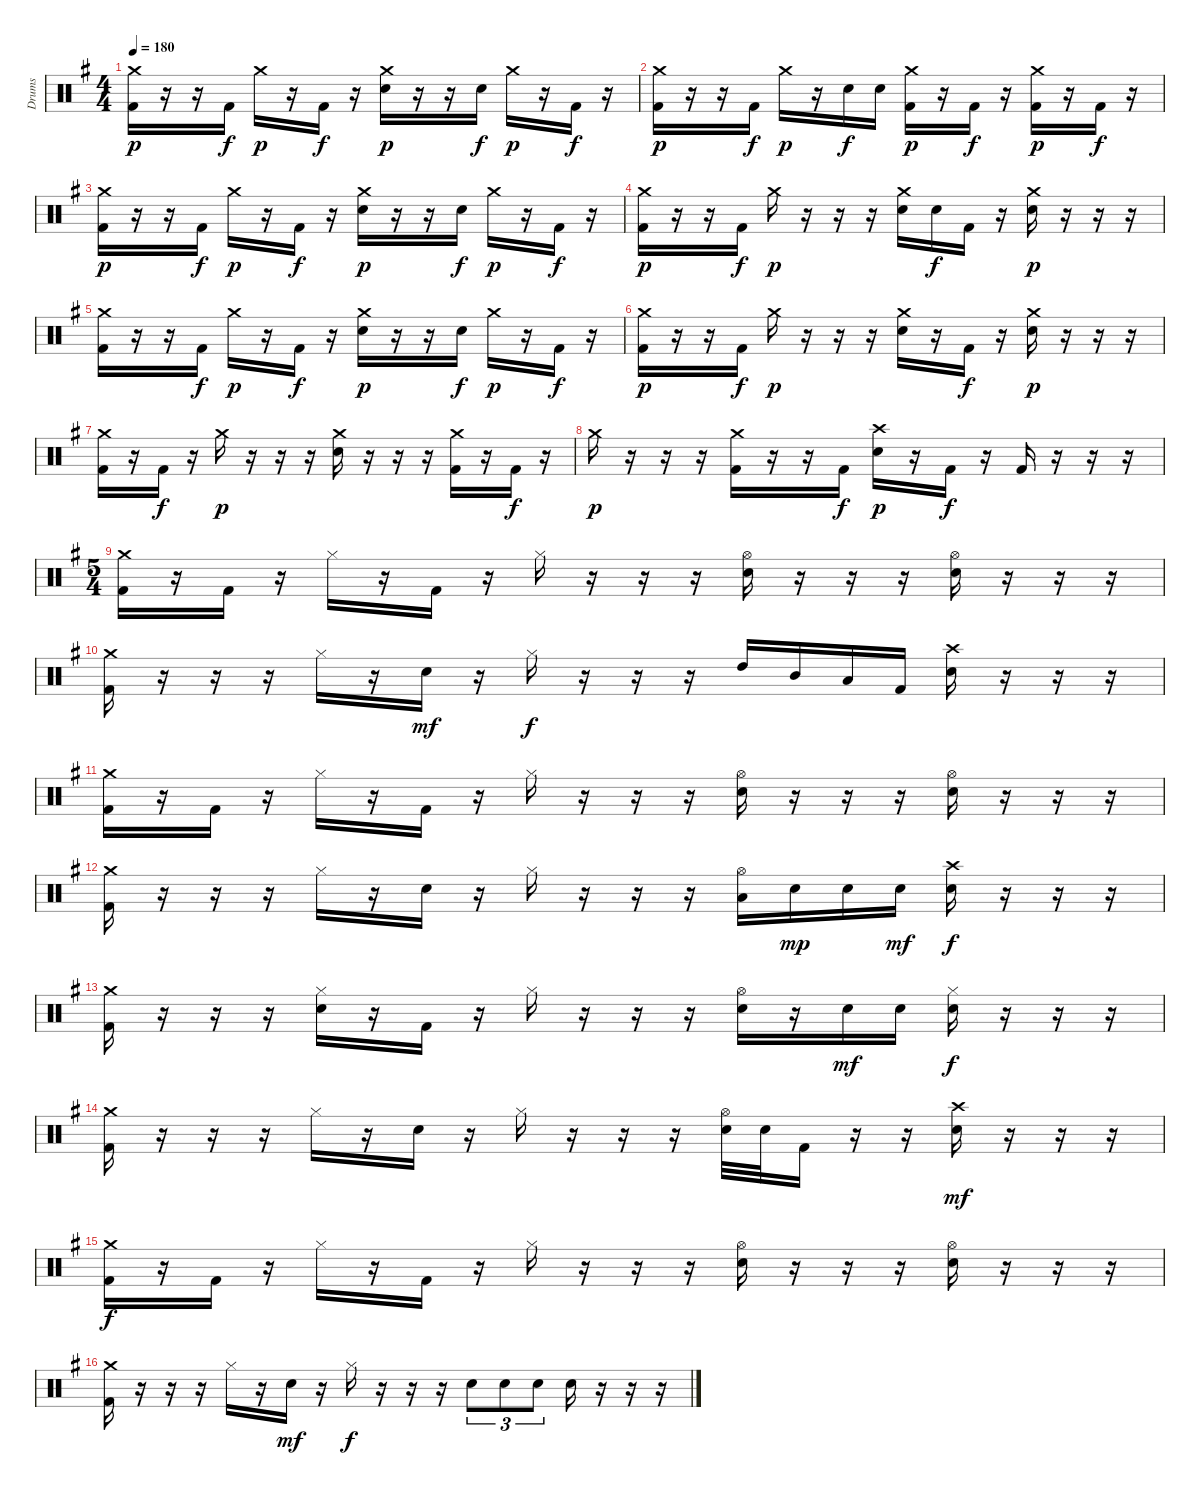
\track ("Drums" "Drums") {instrument percussion}
\staff {score}
\articulation defaults
\ts (4 4)
\tempo 180
\clef neutral
\ks g
("Crash medium (hit)" "Kick (hit) 2").16{dy p} r.16 r.16 "Kick (hit) 2".16{dy f} "Crash medium (hit)".16{dy p} r.16 "Kick (hit) 2".16{dy f} r.16 ("Crash medium (hit)" "Snare (hit) 2").16{dy p} r.16 r.16 "Snare (hit) 2".16{dy f} "Crash medium (hit)".16{dy p} r.16 "Kick (hit) 2".16{dy f} r.16 |
("Crash medium (hit)" "Kick (hit) 2").16{dy p} r.16 r.16 "Kick (hit) 2".16{dy f} "Crash medium (hit)".16{dy p} r.16 "Snare (hit) 2".16{dy f} "Snare (hit) 2".16 ("Crash medium (hit)" "Kick (hit) 2").16{dy p} r.16 "Kick (hit) 2".16{dy f} r.16 ("Crash medium (hit)" "Kick (hit) 2").16{dy p} r.16 "Kick (hit) 2".16{dy f} r.16 |
("Crash medium (hit)" "Kick (hit) 2").16{dy p} r.16 r.16 "Kick (hit) 2".16{dy f} "Crash medium (hit)".16{dy p} r.16 "Kick (hit) 2".16{dy f} r.16 ("Crash medium (hit)" "Snare (hit) 2").16{dy p} r.16 r.16 "Snare (hit) 2".16{dy f} "Crash medium (hit)".16{dy p} r.16 "Kick (hit) 2".16{dy f} r.16 |
("Crash medium (hit)" "Kick (hit) 2").16{dy p} r.16 r.16 "Kick (hit) 2".16{dy f} "Crash medium (hit)".16{dy p} r.16 r.16 r.16 ("Crash medium (hit)" "Snare (hit) 2").16 "Snare (hit) 2".16{dy f} "Kick (hit) 2".16 r.16 ("Crash medium (hit)" "Snare (hit) 2").16{dy p} r.16 r.16 r.16 |
("Crash medium (hit)" "Kick (hit) 2").16 r.16 r.16 "Kick (hit) 2".16{dy f} "Crash medium (hit)".16{dy p} r.16 "Kick (hit) 2".16{dy f} r.16 ("Crash medium (hit)" "Snare (hit) 2").16{dy p} r.16 r.16 "Snare (hit) 2".16{dy f} "Crash medium (hit)".16{dy p} r.16 "Kick (hit) 2".16{dy f} r.16 |
("Crash medium (hit)" "Kick (hit) 2").16{dy p} r.16 r.16 "Kick (hit) 2".16{dy f} "Crash medium (hit)".16{dy p} r.16 r.16 r.16 ("Crash medium (hit)" "Snare (hit) 2").16 r.16 "Kick (hit) 2".16{dy f} r.16 ("Crash medium (hit)" "Snare (hit) 2").16{dy p} r.16 r.16 r.16 |
("Crash medium (hit)" "Kick (hit) 2").16 r.16 "Kick (hit) 2".16{dy f} r.16 "Crash medium (hit)".16{dy p} r.16 r.16 r.16 ("Crash medium (hit)" "Snare (hit) 2").16 r.16 r.16 r.16 ("Crash medium (hit)" "Kick (hit) 2").16 r.16 "Kick (hit) 2".16{dy f} r.16 |
"Crash medium (hit)".16{dy p} r.16 r.16 r.16 ("Crash medium (hit)" "Kick (hit) 2").16 r.16 r.16 "Kick (hit) 2".16{dy f} ("Crash high (hit)" "Snare (hit) 2").16{dy p} r.16 "Kick (hit) 2".16{dy f} r.16 "Kick (hit) 2".16 r.16 r.16 r.16 |
\ts (5 4)
("Crash medium (hit)" "Kick (hit) 2").16 r.16 "Kick (hit) 2".16 r.16 "Hi-Hat (closed)".16 r.16 "Kick (hit) 2".16 r.16 "Hi-Hat (closed)".16 r.16 r.16 r.16 ("Hi-Hat (open)" "Snare (hit) 2").16 r.16 r.16 r.16 ("Hi-Hat (open)" "Snare (hit) 2").16 r.16 r.16 r.16 |
("Crash medium (hit)" "Kick (hit) 2").16 r.16 r.16 r.16 "Hi-Hat (closed)".16 r.16 "Snare (hit) 2".16{dy mf} r.16 "Hi-Hat (closed)".16{dy f} r.16 r.16 r.16 "High Tom (hit)".16 "Mid Tom (hit)".16 "Low Tom (hit)".16 "Kick (hit) 2".16 ("Crash high (hit)" "Snare (hit) 2").16 r.16 r.16 r.16 |
("Crash medium (hit)" "Kick (hit) 2").16 r.16 "Kick (hit) 2".16 r.16 "Hi-Hat (closed)".16 r.16 "Kick (hit) 2".16 r.16 "Hi-Hat (closed)".16 r.16 r.16 r.16 ("Hi-Hat (open)" "Snare (hit) 2").16 r.16 r.16 r.16 ("Hi-Hat (open)" "Snare (hit) 2").16 r.16 r.16 r.16 |
("Crash medium (hit)" "Kick (hit) 2").16 r.16 r.16 r.16 "Hi-Hat (closed)".16 r.16 "Snare (hit) 2".16 r.16 "Hi-Hat (closed)".16 r.16 r.16 r.16 ("Hi-Hat (open)" "Low Tom (hit)").16 "Snare (hit) 2".16{dy mp} "Snare (hit) 2".16 "Snare (hit) 2".16{dy mf} ("Crash high (hit)" "Snare (hit) 2").16{dy f} r.16 r.16 r.16 |
("Crash medium (hit)" "Kick (hit) 2").16 r.16 r.16 r.16 ("Hi-Hat (closed)" "Snare (hit) 2").16 r.16 "Kick (hit) 2".16 r.16 "Hi-Hat (closed)".16 r.16 r.16 r.16 ("Hi-Hat (open)" "Snare (hit) 2").16 r.16 "Snare (hit) 2".16{dy mf} "Snare (hit) 2".16 ("Hi-Hat (closed)" "Snare (hit) 2").16{dy f} r.16 r.16 r.16 |
("Crash medium (hit)" "Kick (hit) 2").16 r.16 r.16 r.16 "Hi-Hat (closed)".16 r.16 "Snare (hit) 2".16 r.16 "Hi-Hat (closed)".16 r.16 r.16 r.16 ("Hi-Hat (open)" "Snare (hit) 2").32 "Snare (hit) 2".32 "Kick (hit) 2".16 r.16 r.16 ("Crash high (hit)" "Snare (hit) 2").16{dy mf} r.16 r.16 r.16 |
("Crash medium (hit)" "Kick (hit) 2").16{dy f} r.16 "Kick (hit) 2".16 r.16 "Hi-Hat (closed)".16 r.16 "Kick (hit) 2".16 r.16 "Hi-Hat (closed)".16 r.16 r.16 r.16 ("Hi-Hat (open)" "Snare (hit) 2").16 r.16 r.16 r.16 ("Hi-Hat (open)" "Snare (hit) 2").16 r.16 r.16 r.16 |
("Crash medium (hit)" "Kick (hit) 2").16 r.16 r.16 r.16 "Hi-Hat (closed)".16 r.16 "Snare (hit) 2".16{dy mf} r.16 "Hi-Hat (closed)".16{dy f} r.16 r.16 r.16 "Snare (hit) 2".8{tu (3 2)} "Snare (hit) 2".8{tu (3 2)} "Snare (hit) 2".8{tu (3 2)} "Snare (hit) 2".16 r.16 r.16 r.16
